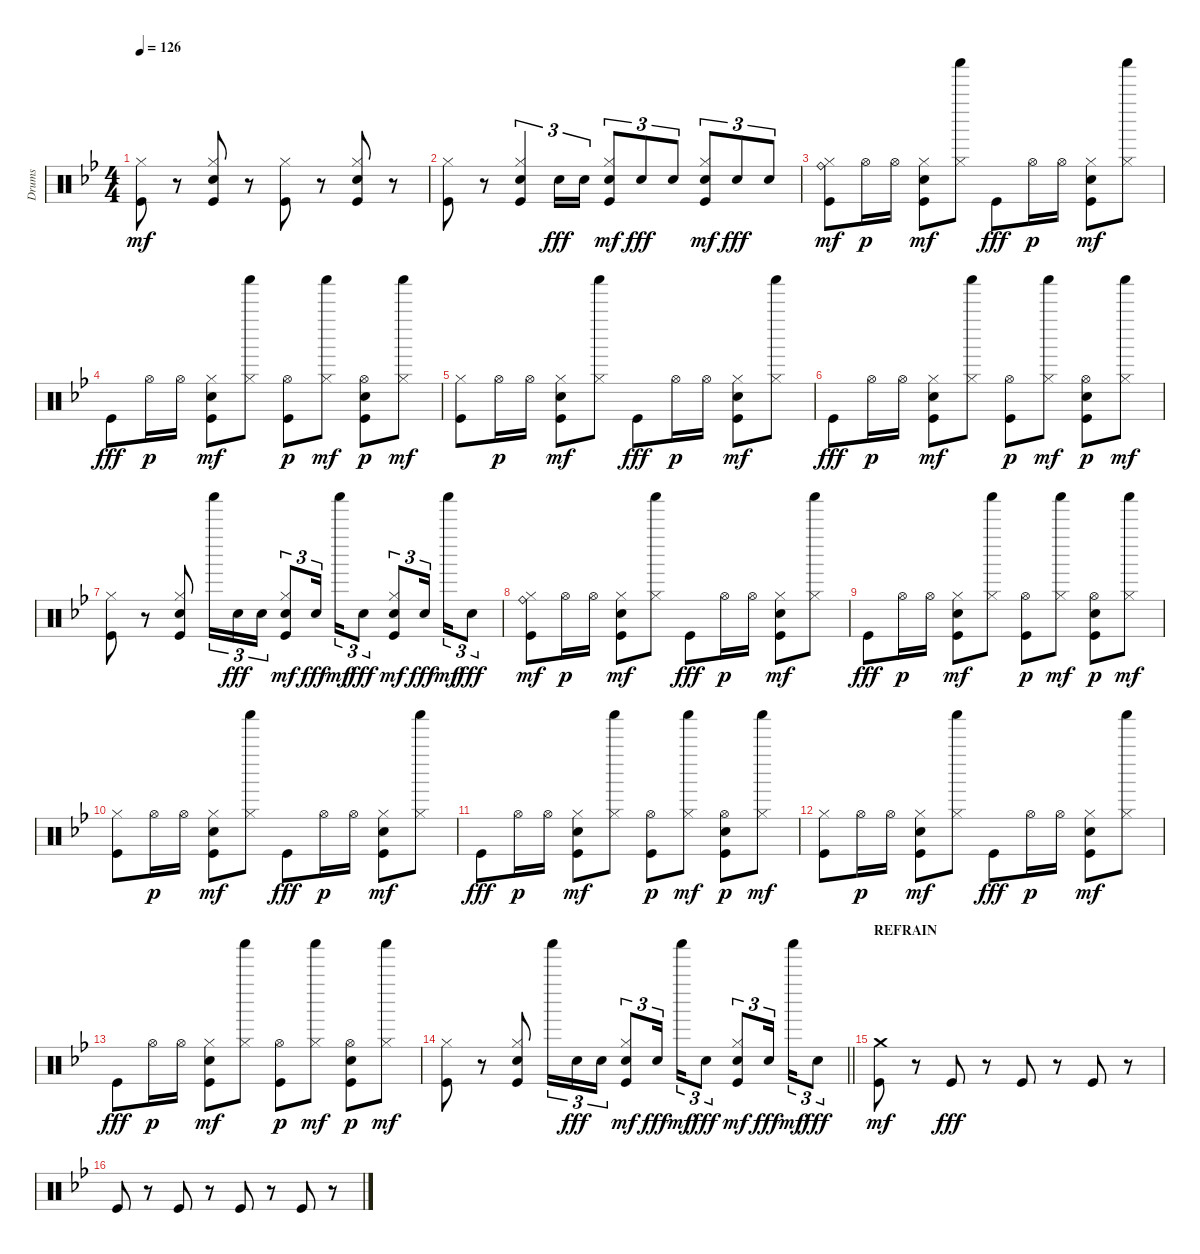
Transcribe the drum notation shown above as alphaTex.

\track ("Drums" "Drums") {instrument percussion}
\staff {score}
\articulation defaults
\ts (4 4)
\tempo 126
\clef neutral
\ks bb
("Kick (hit)" "Hi-Hat (closed)").8{dy mf} r.8 ("Kick (hit)" "Hand Clap (hit)" "Hi-Hat (closed)").8 r.8 ("Kick (hit)" "Hi-Hat (closed)").8 r.8 ("Kick (hit)" "Hand Clap (hit)" "Hi-Hat (closed)").8 r.8 |
("Kick (hit)" "Hi-Hat (closed)").8 r.8 ("Kick (hit)" "Hand Clap (hit)" "Hi-Hat (closed)").4{tu (3 2)} "Snare (hit) 2".16{tu (3 2) dy fff} "Snare (hit) 2".16{tu (3 2)} ("Kick (hit)" "Snare (hit) 2" "Hi-Hat (closed)").8{tu (3 2) dy mf} "Snare (hit) 2".8{tu (3 2) dy fff} "Snare (hit) 2".8{tu (3 2)} ("Kick (hit)" "Snare (hit) 2" "Hi-Hat (closed)").8{tu (3 2) dy mf} "Snare (hit) 2".8{tu (3 2) dy fff} "Snare (hit) 2".8{tu (3 2)} |
("Kick (hit)" "Hi-Hat (closed)" "Ride (bell)").8{dy mf} "Hi-Hat (open)".16{dy p} "Hi-Hat (open)".16 ("Kick (hit)" "Hand Clap (hit)" "Hi-Hat (closed)").8{dy mf} ("Hi-Hat (closed)" "Shaker (hit)").8 "Kick (hit)".8{dy fff} "Hi-Hat (open)".16{dy p} "Hi-Hat (open)".16 ("Kick (hit)" "Hand Clap (hit)" "Hi-Hat (closed)").8{dy mf} ("Hi-Hat (closed)" "Shaker (hit)").8 |
"Kick (hit)".8{dy fff} "Hi-Hat (open)".16{dy p} "Hi-Hat (open)".16 ("Kick (hit)" "Hand Clap (hit)" "Hi-Hat (closed)").8{dy mf} ("Hi-Hat (closed)" "Shaker (hit)").8 ("Kick (hit)" "Hi-Hat (open)").8{dy p} ("Hi-Hat (closed)" "Shaker (hit)").8{dy mf} ("Kick (hit)" "Hand Clap (hit)" "Hi-Hat (open)").8{dy p} ("Hi-Hat (closed)" "Shaker (hit)").8{dy mf} |
("Kick (hit)" "Hi-Hat (closed)").8 "Hi-Hat (open)".16{dy p} "Hi-Hat (open)".16 ("Kick (hit)" "Hand Clap (hit)" "Hi-Hat (closed)").8{dy mf} ("Hi-Hat (closed)" "Shaker (hit)").8 "Kick (hit)".8{dy fff} "Hi-Hat (open)".16{dy p} "Hi-Hat (open)".16 ("Kick (hit)" "Hand Clap (hit)" "Hi-Hat (closed)").8{dy mf} ("Hi-Hat (closed)" "Shaker (hit)").8 |
"Kick (hit)".8{dy fff} "Hi-Hat (open)".16{dy p} "Hi-Hat (open)".16 ("Kick (hit)" "Hand Clap (hit)" "Hi-Hat (closed)").8{dy mf} ("Hi-Hat (closed)" "Shaker (hit)").8 ("Kick (hit)" "Hi-Hat (open)").8{dy p} ("Hi-Hat (closed)" "Shaker (hit)").8{dy mf} ("Kick (hit)" "Hand Clap (hit)" "Hi-Hat (open)").8{dy p} ("Hi-Hat (closed)" "Shaker (hit)").8{dy mf} |
("Kick (hit)" "Hi-Hat (closed)").8 r.8 ("Kick (hit)" "Hand Clap (hit)" "Hi-Hat (closed)").8 "Shaker (hit)".16{tu (3 2)} "Snare (hit) 2".16{tu (3 2) dy fff} "Snare (hit) 2".16{tu (3 2)} ("Kick (hit)" "Snare (hit) 2" "Hi-Hat (closed)").8{tu (3 2) dy mf} "Snare (hit) 2".16{tu (3 2) dy fff beam splitsecondary} "Shaker (hit)".16{tu (3 2) dy mf} "Snare (hit) 2".8{tu (3 2) dy fff} ("Kick (hit)" "Snare (hit) 2" "Hi-Hat (closed)").8{tu (3 2) dy mf} "Snare (hit) 2".16{tu (3 2) dy fff beam splitsecondary} "Shaker (hit)".16{tu (3 2) dy mf} "Snare (hit) 2".8{tu (3 2) dy fff} |
("Kick (hit)" "Hi-Hat (closed)" "Ride (bell)").8{dy mf} "Hi-Hat (open)".16{dy p} "Hi-Hat (open)".16 ("Kick (hit)" "Hand Clap (hit)" "Hi-Hat (closed)").8{dy mf} ("Hi-Hat (closed)" "Shaker (hit)").8 "Kick (hit)".8{dy fff} "Hi-Hat (open)".16{dy p} "Hi-Hat (open)".16 ("Kick (hit)" "Hand Clap (hit)" "Hi-Hat (closed)").8{dy mf} ("Hi-Hat (closed)" "Shaker (hit)").8 |
"Kick (hit)".8{dy fff} "Hi-Hat (open)".16{dy p} "Hi-Hat (open)".16 ("Kick (hit)" "Hand Clap (hit)" "Hi-Hat (closed)").8{dy mf} ("Hi-Hat (closed)" "Shaker (hit)").8 ("Kick (hit)" "Hi-Hat (open)").8{dy p} ("Hi-Hat (closed)" "Shaker (hit)").8{dy mf} ("Kick (hit)" "Hand Clap (hit)" "Hi-Hat (open)").8{dy p} ("Hi-Hat (closed)" "Shaker (hit)").8{dy mf} |
("Kick (hit)" "Hi-Hat (closed)").8 "Hi-Hat (open)".16{dy p} "Hi-Hat (open)".16 ("Kick (hit)" "Hand Clap (hit)" "Hi-Hat (closed)").8{dy mf} ("Hi-Hat (closed)" "Shaker (hit)").8 "Kick (hit)".8{dy fff} "Hi-Hat (open)".16{dy p} "Hi-Hat (open)".16 ("Kick (hit)" "Hand Clap (hit)" "Hi-Hat (closed)").8{dy mf} ("Hi-Hat (closed)" "Shaker (hit)").8 |
"Kick (hit)".8{dy fff} "Hi-Hat (open)".16{dy p} "Hi-Hat (open)".16 ("Kick (hit)" "Hand Clap (hit)" "Hi-Hat (closed)").8{dy mf} ("Hi-Hat (closed)" "Shaker (hit)").8 ("Kick (hit)" "Hi-Hat (open)").8{dy p} ("Hi-Hat (closed)" "Shaker (hit)").8{dy mf} ("Kick (hit)" "Hand Clap (hit)" "Hi-Hat (open)").8{dy p} ("Hi-Hat (closed)" "Shaker (hit)").8{dy mf} |
("Kick (hit)" "Hi-Hat (closed)").8 "Hi-Hat (open)".16{dy p} "Hi-Hat (open)".16 ("Kick (hit)" "Hand Clap (hit)" "Hi-Hat (closed)").8{dy mf} ("Hi-Hat (closed)" "Shaker (hit)").8 "Kick (hit)".8{dy fff} "Hi-Hat (open)".16{dy p} "Hi-Hat (open)".16 ("Kick (hit)" "Hand Clap (hit)" "Hi-Hat (closed)").8{dy mf} ("Hi-Hat (closed)" "Shaker (hit)").8 |
"Kick (hit)".8{dy fff} "Hi-Hat (open)".16{dy p} "Hi-Hat (open)".16 ("Kick (hit)" "Hand Clap (hit)" "Hi-Hat (closed)").8{dy mf} ("Hi-Hat (closed)" "Shaker (hit)").8 ("Kick (hit)" "Hi-Hat (open)").8{dy p} ("Hi-Hat (closed)" "Shaker (hit)").8{dy mf} ("Kick (hit)" "Hand Clap (hit)" "Hi-Hat (open)").8{dy p} ("Hi-Hat (closed)" "Shaker (hit)").8{dy mf} |
\barLineRight lightlight
("Kick (hit)" "Hi-Hat (closed)").8 r.8 ("Kick (hit)" "Hand Clap (hit)" "Hi-Hat (closed)").8 "Shaker (hit)".16{tu (3 2)} "Snare (hit) 2".16{tu (3 2) dy fff} "Snare (hit) 2".16{tu (3 2)} ("Kick (hit)" "Snare (hit) 2" "Hi-Hat (closed)").8{tu (3 2) dy mf} "Snare (hit) 2".16{tu (3 2) dy fff beam splitsecondary} "Shaker (hit)".16{tu (3 2) dy mf} "Snare (hit) 2".8{tu (3 2) dy fff} ("Kick (hit)" "Snare (hit) 2" "Hi-Hat (closed)").8{tu (3 2) dy mf} "Snare (hit) 2".16{tu (3 2) dy fff beam splitsecondary} "Shaker (hit)".16{tu (3 2) dy mf} "Snare (hit) 2".8{tu (3 2) dy fff} |
\section ("" "REFRAIN")
("Kick (hit)" "Crash medium (hit)").8{dy mf} r.8 "Kick (hit)".8{dy fff} r.8 "Kick (hit)".8 r.8 "Kick (hit)".8 r.8 |
"Kick (hit)".8 r.8 "Kick (hit)".8 r.8 "Kick (hit)".8 r.8 "Kick (hit)".8 r.8
